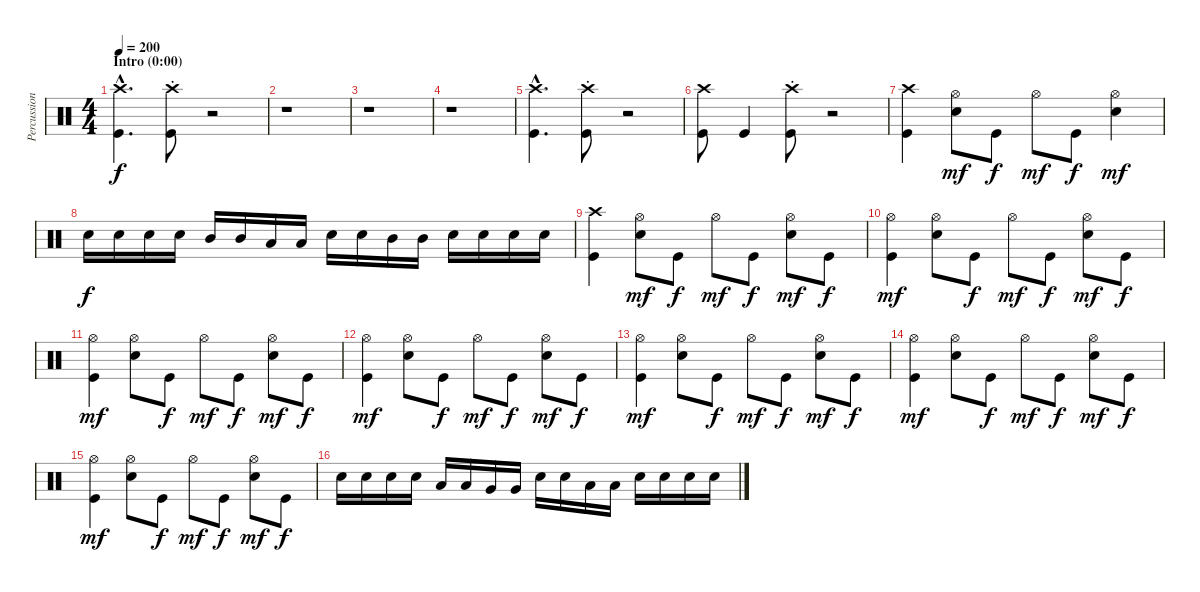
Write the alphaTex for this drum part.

\track ("Percussion" "Percussion") {instrument percussion}
\staff {score}
\articulation defaults
\ts (4 4)
\section ("" "Intro (0:00)")
\tempo 200
\clef neutral
\ks c
("Crash high (hit)"{hac} "Kick (hit)"{hac}).4{d dy f} ("Crash high (hit)"{st} "Kick (hit)").8 r.2 |
r.1 |
r.1 |
r.1 |
("Crash high (hit)"{hac} "Kick (hit)"{hac}).4{d} ("Crash high (hit)"{st} "Kick (hit)").8 r.2 |
("Crash high (hit)" "Kick (hit)").8 "Kick (hit)".4 ("Crash high (hit)"{st} "Kick (hit)").8 r.2 |
("Crash high (hit)" "Kick (hit)").4 ("Hi-Hat (open)" "Snare (hit) 2").8{dy mf} "Kick (hit)".8{dy f} "Hi-Hat (open)".8{dy mf} "Kick (hit)".8{dy f} ("Hi-Hat (open)" "Snare (hit) 2").4{dy mf} |
"Snare (hit) 2".16{dy f} "Snare (hit) 2".16 "Snare (hit) 2".16 "Snare (hit) 2".16 "Mid Tom (hit)".16 "Mid Tom (hit)".16 "Low Tom (hit)".16 "Low Tom (hit)".16 "Snare (hit) 2".16 "Snare (hit) 2".16 "Mid Tom (hit)".16 "Mid Tom (hit)".16 "Snare (hit) 2".16 "Snare (hit) 2".16 "Snare (hit) 2".16 "Snare (hit) 2".16 |
("Crash high (hit)" "Kick (hit)").4 ("Hi-Hat (open)" "Snare (hit) 2").8{dy mf} "Kick (hit)".8{dy f} "Hi-Hat (open)".8{dy mf} "Kick (hit)".8{dy f} ("Hi-Hat (open)" "Snare (hit) 2").8{dy mf} "Kick (hit)".8{dy f} |
("Hi-Hat (open)" "Kick (hit)").4{dy mf} ("Hi-Hat (open)" "Snare (hit) 2").8 "Kick (hit)".8{dy f} "Hi-Hat (open)".8{dy mf} "Kick (hit)".8{dy f} ("Hi-Hat (open)" "Snare (hit) 2").8{dy mf} "Kick (hit)".8{dy f} |
("Hi-Hat (open)" "Kick (hit)").4{dy mf} ("Hi-Hat (open)" "Snare (hit) 2").8 "Kick (hit)".8{dy f} "Hi-Hat (open)".8{dy mf} "Kick (hit)".8{dy f} ("Hi-Hat (open)" "Snare (hit) 2").8{dy mf} "Kick (hit)".8{dy f} |
("Hi-Hat (open)" "Kick (hit)").4{dy mf} ("Hi-Hat (open)" "Snare (hit) 2").8 "Kick (hit)".8{dy f} "Hi-Hat (open)".8{dy mf} "Kick (hit)".8{dy f} ("Hi-Hat (open)" "Snare (hit) 2").8{dy mf} "Kick (hit)".8{dy f} |
("Hi-Hat (open)" "Kick (hit)").4{dy mf} ("Hi-Hat (open)" "Snare (hit) 2").8 "Kick (hit)".8{dy f} "Hi-Hat (open)".8{dy mf} "Kick (hit)".8{dy f} ("Hi-Hat (open)" "Snare (hit) 2").8{dy mf} "Kick (hit)".8{dy f} |
("Hi-Hat (open)" "Kick (hit)").4{dy mf} ("Hi-Hat (open)" "Snare (hit) 2").8 "Kick (hit)".8{dy f} "Hi-Hat (open)".8{dy mf} "Kick (hit)".8{dy f} ("Hi-Hat (open)" "Snare (hit) 2").8{dy mf} "Kick (hit)".8{dy f} |
("Hi-Hat (open)" "Kick (hit)").4{dy mf} ("Hi-Hat (open)" "Snare (hit) 2").8 "Kick (hit)".8{dy f} "Hi-Hat (open)".8{dy mf} "Kick (hit)".8{dy f} ("Hi-Hat (open)" "Snare (hit) 2").8{dy mf} "Kick (hit)".8{dy f} |
"Snare (hit) 2".16 "Snare (hit) 2".16 "Snare (hit) 2".16 "Snare (hit) 2".16 "Low Tom (hit)".16 "Low Tom (hit)".16 "Very Low Tom (hit)".16 "Very Low Tom (hit)".16 "Snare (hit) 2".16 "Snare (hit) 2".16 "Low Tom (hit)".16 "Low Tom (hit)".16 "Snare (hit) 2".16 "Snare (hit) 2".16 "Snare (hit) 2".16 "Snare (hit) 2".16
